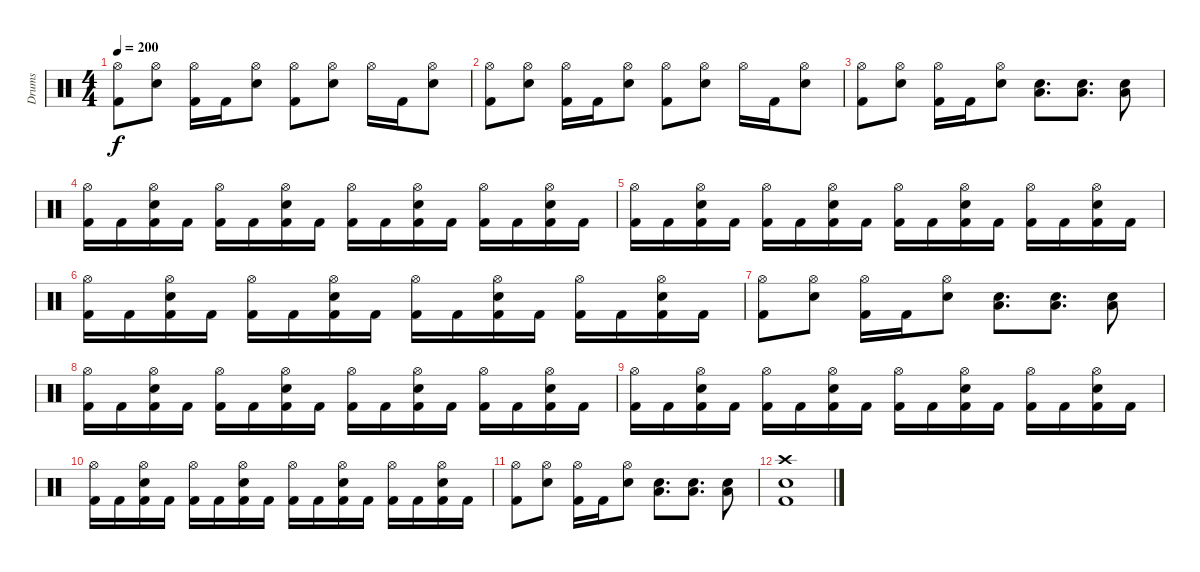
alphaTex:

\track ("Drums" "Drums") {instrument percussion}
\staff {score}
\articulation defaults
\ts (4 4)
\tempo 200
\clef neutral
\ks c
("Hi-Hat (open)" "Kick (hit) 2").8{dy f} ("Hi-Hat (open)" "Electric Snare (hit)").8 ("Hi-Hat (open)" "Kick (hit) 2").16 "Kick (hit) 2".16 ("Hi-Hat (open)" "Electric Snare (hit)").8 ("Hi-Hat (open)" "Kick (hit) 2").8 ("Hi-Hat (open)" "Electric Snare (hit)").8 "Hi-Hat (open)".16 "Kick (hit) 2".16 ("Hi-Hat (open)" "Electric Snare (hit)").8 |
("Hi-Hat (open)" "Kick (hit) 2").8 ("Hi-Hat (open)" "Electric Snare (hit)").8 ("Hi-Hat (open)" "Kick (hit) 2").16 "Kick (hit) 2".16 ("Hi-Hat (open)" "Electric Snare (hit)").8 ("Hi-Hat (open)" "Kick (hit) 2").8 ("Hi-Hat (open)" "Electric Snare (hit)").8 "Hi-Hat (open)".16 "Kick (hit) 2".16 ("Hi-Hat (open)" "Electric Snare (hit)").8 |
("Hi-Hat (open)" "Kick (hit) 2").8 ("Hi-Hat (open)" "Electric Snare (hit)").8 ("Hi-Hat (open)" "Kick (hit) 2").16 "Kick (hit) 2".16 ("Hi-Hat (open)" "Electric Snare (hit)").8 ("Low Tom (hit)" "Electric Snare (hit)").8{d} ("Low Tom (hit)" "Electric Snare (hit)").8{d} ("Low Tom (hit)" "Electric Snare (hit)").8 |
("Hi-Hat (open)" "Kick (hit) 2").16 "Kick (hit) 2".16 ("Hi-Hat (open)" "Electric Snare (hit)" "Kick (hit) 2").16 "Kick (hit) 2".16 ("Hi-Hat (open)" "Kick (hit) 2").16 "Kick (hit) 2".16 ("Hi-Hat (open)" "Electric Snare (hit)" "Kick (hit) 2").16 "Kick (hit) 2".16 ("Hi-Hat (open)" "Kick (hit) 2").16 "Kick (hit) 2".16 ("Hi-Hat (open)" "Electric Snare (hit)" "Kick (hit) 2").16 "Kick (hit) 2".16 ("Hi-Hat (open)" "Kick (hit) 2").16 "Kick (hit) 2".16 ("Hi-Hat (open)" "Electric Snare (hit)" "Kick (hit) 2").16 "Kick (hit) 2".16 |
("Hi-Hat (open)" "Kick (hit) 2").16 "Kick (hit) 2".16 ("Hi-Hat (open)" "Electric Snare (hit)" "Kick (hit) 2").16 "Kick (hit) 2".16 ("Hi-Hat (open)" "Kick (hit) 2").16 "Kick (hit) 2".16 ("Hi-Hat (open)" "Electric Snare (hit)" "Kick (hit) 2").16 "Kick (hit) 2".16 ("Hi-Hat (open)" "Kick (hit) 2").16 "Kick (hit) 2".16 ("Hi-Hat (open)" "Electric Snare (hit)" "Kick (hit) 2").16 "Kick (hit) 2".16 ("Hi-Hat (open)" "Kick (hit) 2").16 "Kick (hit) 2".16 ("Hi-Hat (open)" "Electric Snare (hit)" "Kick (hit) 2").16 "Kick (hit) 2".16 |
("Hi-Hat (open)" "Kick (hit) 2").16 "Kick (hit) 2".16 ("Hi-Hat (open)" "Electric Snare (hit)" "Kick (hit) 2").16 "Kick (hit) 2".16 ("Hi-Hat (open)" "Kick (hit) 2").16 "Kick (hit) 2".16 ("Hi-Hat (open)" "Electric Snare (hit)" "Kick (hit) 2").16 "Kick (hit) 2".16 ("Hi-Hat (open)" "Kick (hit) 2").16 "Kick (hit) 2".16 ("Hi-Hat (open)" "Electric Snare (hit)" "Kick (hit) 2").16 "Kick (hit) 2".16 ("Hi-Hat (open)" "Kick (hit) 2").16 "Kick (hit) 2".16 ("Hi-Hat (open)" "Electric Snare (hit)" "Kick (hit) 2").16 "Kick (hit) 2".16 |
("Hi-Hat (open)" "Kick (hit) 2").8 ("Hi-Hat (open)" "Electric Snare (hit)").8 ("Hi-Hat (open)" "Kick (hit) 2").16 "Kick (hit) 2".16 ("Hi-Hat (open)" "Electric Snare (hit)").8 ("Low Tom (hit)" "Electric Snare (hit)").8{d} ("Low Tom (hit)" "Electric Snare (hit)").8{d} ("Low Tom (hit)" "Electric Snare (hit)").8 |
("Hi-Hat (open)" "Kick (hit) 2").16 "Kick (hit) 2".16 ("Hi-Hat (open)" "Electric Snare (hit)" "Kick (hit) 2").16 "Kick (hit) 2".16 ("Hi-Hat (open)" "Kick (hit) 2").16 "Kick (hit) 2".16 ("Hi-Hat (open)" "Electric Snare (hit)" "Kick (hit) 2").16 "Kick (hit) 2".16 ("Hi-Hat (open)" "Kick (hit) 2").16 "Kick (hit) 2".16 ("Hi-Hat (open)" "Electric Snare (hit)" "Kick (hit) 2").16 "Kick (hit) 2".16 ("Hi-Hat (open)" "Kick (hit) 2").16 "Kick (hit) 2".16 ("Hi-Hat (open)" "Electric Snare (hit)" "Kick (hit) 2").16 "Kick (hit) 2".16 |
("Hi-Hat (open)" "Kick (hit) 2").16 "Kick (hit) 2".16 ("Hi-Hat (open)" "Electric Snare (hit)" "Kick (hit) 2").16 "Kick (hit) 2".16 ("Hi-Hat (open)" "Kick (hit) 2").16 "Kick (hit) 2".16 ("Hi-Hat (open)" "Electric Snare (hit)" "Kick (hit) 2").16 "Kick (hit) 2".16 ("Hi-Hat (open)" "Kick (hit) 2").16 "Kick (hit) 2".16 ("Hi-Hat (open)" "Electric Snare (hit)" "Kick (hit) 2").16 "Kick (hit) 2".16 ("Hi-Hat (open)" "Kick (hit) 2").16 "Kick (hit) 2".16 ("Hi-Hat (open)" "Electric Snare (hit)" "Kick (hit) 2").16 "Kick (hit) 2".16 |
("Hi-Hat (open)" "Kick (hit) 2").16 "Kick (hit) 2".16 ("Hi-Hat (open)" "Electric Snare (hit)" "Kick (hit) 2").16 "Kick (hit) 2".16 ("Hi-Hat (open)" "Kick (hit) 2").16 "Kick (hit) 2".16 ("Hi-Hat (open)" "Electric Snare (hit)" "Kick (hit) 2").16 "Kick (hit) 2".16 ("Hi-Hat (open)" "Kick (hit) 2").16 "Kick (hit) 2".16 ("Hi-Hat (open)" "Electric Snare (hit)" "Kick (hit) 2").16 "Kick (hit) 2".16 ("Hi-Hat (open)" "Kick (hit) 2").16 "Kick (hit) 2".16 ("Hi-Hat (open)" "Electric Snare (hit)" "Kick (hit) 2").16 "Kick (hit) 2".16 |
("Hi-Hat (open)" "Kick (hit) 2").8 ("Hi-Hat (open)" "Electric Snare (hit)").8 ("Hi-Hat (open)" "Kick (hit) 2").16 "Kick (hit) 2".16 ("Hi-Hat (open)" "Electric Snare (hit)").8 ("Low Tom (hit)" "Electric Snare (hit)").8{d} ("Low Tom (hit)" "Electric Snare (hit)").8{d} ("Low Tom (hit)" "Electric Snare (hit)").8 |
("Crash high (hit)" "Electric Snare (hit)" "Kick (hit) 2").1
